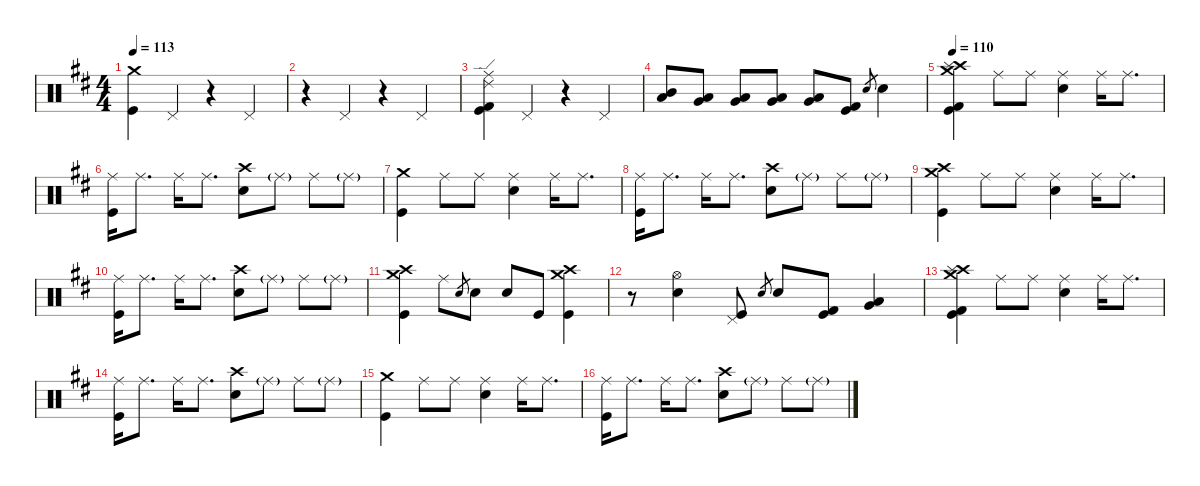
\defaultSystemsLayout 4
\hideDynamics
\bracketExtendMode nobrackets
\singleTrackTrackNamePolicy hidden
\multiTrackTrackNamePolicy hidden
\firstSystemTrackNameMode fullname
\firstSystemTrackNameOrientation horizontal
\otherSystemsTrackNameOrientation horizontal
\track ("Aaron Harris" "drm.") {instrument percussion}
\staff {score}
\articulation defaults
\ts (4 4)
\tempo 113
\clef neutral
\ks bminor
("Crash medium (hit)"{acc forcenatural} "Kick (hit)"{acc forcenatural}).4{dy mf beam Down} "Pedal Hi-Hat (hit)"{acc forcenatural}.4{beam Up} r.4{beam Up} "Pedal Hi-Hat (hit)"{acc forcenatural}.4{beam Up} |
r.4{beam Down} "Pedal Hi-Hat (hit)"{acc forcenatural}.4{beam Up} r.4{beam Up} "Pedal Hi-Hat (hit)"{acc forcenatural}.4{beam Up} |
("Ride (middle)"{acc forcenatural} "Ride (edge) 2"{acc forcenatural} "Kick (hit) 2"{acc forcenatural} "Kick (hit)"{acc forcenatural}).4{beam Down} "Pedal Hi-Hat (hit)"{acc forcenatural}.4{beam Up} r.4{beam Up} "Pedal Hi-Hat (hit)"{acc forcenatural}.4{beam Up} |
("Mid Tom (hit)"{acc forcenatural} "Low Tom (hit)"{acc forcenatural}).8{dy p beam Up} ("Low Tom (hit)"{acc forcenatural} "Very Low Tom (hit)"{acc forcenatural}).8{dy mp beam Up} ("Low Tom (hit)"{acc forcenatural} "Very Low Tom (hit)"{acc forcenatural}).8{dy mf beam Up} ("Low Tom (hit)"{acc forcenatural} "Very Low Tom (hit)"{acc forcenatural}).8{dy f beam Up} ("Very Low Tom (hit)"{acc forcenatural} "Low Floor Tom (hit)"{acc forcenatural}).8{beam Up} ("Kick (hit) 2"{acc forcenatural} "Kick (hit)"{acc forcenatural}).8{beam Up} "Electric Snare (hit)"{acc forcenatural}.8{gr beam Up} "Snare (hit) 2"{acc forcenatural}.4{dy ff beam Down} |
\tempo 110
("Crash medium (hit)"{acc forcenatural} "Crash high (hit)"{acc forcenatural} "Splash (hit)"{acc forcenatural} "Kick (hit) 2"{acc forcenatural} "Kick (hit)"{acc forcenatural}).4{dy f beam Down} "Ride (middle)"{acc forcenatural}.8{beam Down} "Ride (middle)"{acc forcenatural}.8{beam Down} ("Ride (middle)"{acc forcenatural} "Snare (hit) 2"{acc forcenatural}).4{beam Down} "Ride (middle)"{acc forcenatural}.16{dy mf beam Down} "Ride (middle)"{acc forcenatural}.8{d dy f beam Down} |
("Ride (middle)"{acc forcenatural} "Kick (hit)"{acc forcenatural}).16{beam Down} "Ride (middle)"{acc forcenatural}.8{d beam Down} "Ride (middle)"{acc forcenatural}.16{beam Down} "Ride (middle)"{acc forcenatural}.8{d beam Down} ("Crash high (hit)"{acc forcenatural} "Snare (hit) 2"{acc forcenatural}).8{beam Down} "Ride (middle)"{g acc forcenatural}.8{dy mf beam Down} "Ride (middle)"{acc forcenatural}.8{dy f beam Down} "Ride (middle)"{g acc forcenatural}.8{dy mf beam Down} |
("Crash medium (hit)"{acc forcenatural} "Kick (hit)"{acc forcenatural}).4{dy f beam Down} "Ride (middle)"{acc forcenatural}.8{beam Down} "Ride (middle)"{acc forcenatural}.8{beam Down} ("Ride (middle)"{acc forcenatural} "Snare (hit) 2"{acc forcenatural}).4{beam Down} "Ride (middle)"{acc forcenatural}.16{dy mf beam Down} "Ride (middle)"{acc forcenatural}.8{d dy f beam Down} |
("Ride (middle)"{acc forcenatural} "Kick (hit)"{acc forcenatural}).16{beam Down} "Ride (middle)"{acc forcenatural}.8{d beam Down} "Ride (middle)"{acc forcenatural}.16{beam Down} "Ride (middle)"{acc forcenatural}.8{d beam Down} ("Crash high (hit)"{acc forcenatural} "Snare (hit) 2"{acc forcenatural}).8{beam Down} "Ride (middle)"{g acc forcenatural}.8{dy mf beam Down} "Ride (middle)"{acc forcenatural}.8{dy f beam Down} "Ride (middle)"{g acc forcenatural}.8{dy mf beam Down} |
("Crash medium (hit)"{acc forcenatural} "Crash high (hit)"{acc forcenatural} "Kick (hit)"{acc forcenatural}).4{dy f beam Down} "Ride (middle)"{acc forcenatural}.8{beam Down} "Ride (middle)"{acc forcenatural}.8{beam Down} ("Ride (middle)"{acc forcenatural} "Snare (hit) 2"{acc forcenatural}).4{beam Down} "Ride (middle)"{acc forcenatural}.16{dy mf beam Down} "Ride (middle)"{acc forcenatural}.8{d dy f beam Down} |
("Ride (middle)"{acc forcenatural} "Kick (hit)"{acc forcenatural}).16{beam Down} "Ride (middle)"{acc forcenatural}.8{d beam Down} "Ride (middle)"{acc forcenatural}.16{beam Down} "Ride (middle)"{acc forcenatural}.8{d beam Down} ("Crash high (hit)"{acc forcenatural} "Snare (hit) 2"{acc forcenatural}).8{beam Down} "Ride (middle)"{g acc forcenatural}.8{dy mf beam Down} "Ride (middle)"{acc forcenatural}.8{dy f beam Down} "Ride (middle)"{g acc forcenatural}.8{dy mf beam Down} |
("Crash medium (hit)"{acc forcenatural} "Crash high (hit)"{acc forcenatural} "Kick (hit)"{acc forcenatural}).4{dy f beam Down} "Ride (middle)"{acc forcenatural}.8{beam Down} "Electric Snare (hit)"{acc forcenatural}.8{gr beam Up} "Snare (hit) 2"{acc forcenatural}.8{dy ff beam Down} "Snare (hit) 2"{acc forcenatural}.8{beam Up} "Kick (hit)"{acc forcenatural}.8{dy f beam Up} ("Crash medium (hit)"{acc forcenatural} "Crash high (hit)"{acc forcenatural} "Kick (hit)"{acc forcenatural}).4{beam Down} |
r.8{beam Down} ("Hi-Hat (open)"{acc forcenatural} "Snare (hit) 2"{acc forcenatural}).4{beam Down} ("Pedal Hi-Hat (hit)"{acc forcenatural} "Kick (hit)"{acc forcenatural}).8{beam Up} "Electric Snare (hit)"{acc forcenatural}.8{gr dy ff beam Up} "Snare (hit) 2"{acc forcenatural}.8{dy f beam Up} ("Kick (hit) 2"{acc forcenatural} "Kick (hit)"{acc forcenatural}).8{beam Up} ("Low Tom (hit)"{acc forcenatural} "Very Low Tom (hit)"{acc forcenatural}).4{beam Up} |
("Crash medium (hit)"{acc forcenatural} "Crash high (hit)"{acc forcenatural} "Splash (hit)"{acc forcenatural} "Kick (hit) 2"{acc forcenatural} "Kick (hit)"{acc forcenatural}).4{beam Down} "Ride (middle)"{acc forcenatural}.8{beam Down} "Ride (middle)"{acc forcenatural}.8{beam Down} ("Ride (middle)"{acc forcenatural} "Snare (hit) 2"{acc forcenatural}).4{beam Down} "Ride (middle)"{acc forcenatural}.16{dy mf beam Down} "Ride (middle)"{acc forcenatural}.8{d dy f beam Down} |
("Ride (middle)"{acc forcenatural} "Kick (hit)"{acc forcenatural}).16{beam Down} "Ride (middle)"{acc forcenatural}.8{d beam Down} "Ride (middle)"{acc forcenatural}.16{beam Down} "Ride (middle)"{acc forcenatural}.8{d beam Down} ("Crash high (hit)"{acc forcenatural} "Snare (hit) 2"{acc forcenatural}).8{beam Down} "Ride (middle)"{g acc forcenatural}.8{dy mf beam Down} "Ride (middle)"{acc forcenatural}.8{dy f beam Down} "Ride (middle)"{g acc forcenatural}.8{dy mf beam Down} |
("Crash medium (hit)"{acc forcenatural} "Kick (hit)"{acc forcenatural}).4{dy f beam Down} "Ride (middle)"{acc forcenatural}.8{beam Down} "Ride (middle)"{acc forcenatural}.8{beam Down} ("Ride (middle)"{acc forcenatural} "Snare (hit) 2"{acc forcenatural}).4{beam Down} "Ride (middle)"{acc forcenatural}.16{dy mf beam Down} "Ride (middle)"{acc forcenatural}.8{d dy f beam Down} |
("Ride (middle)"{acc forcenatural} "Kick (hit)"{acc forcenatural}).16{beam Down} "Ride (middle)"{acc forcenatural}.8{d beam Down} "Ride (middle)"{acc forcenatural}.16{beam Down} "Ride (middle)"{acc forcenatural}.8{d beam Down} ("Crash high (hit)"{acc forcenatural} "Snare (hit) 2"{acc forcenatural}).8{beam Down} "Ride (middle)"{g acc forcenatural}.8{dy mf beam Down} "Ride (middle)"{acc forcenatural}.8{dy f beam Down} "Ride (middle)"{g acc forcenatural}.8{dy mf beam Down}
